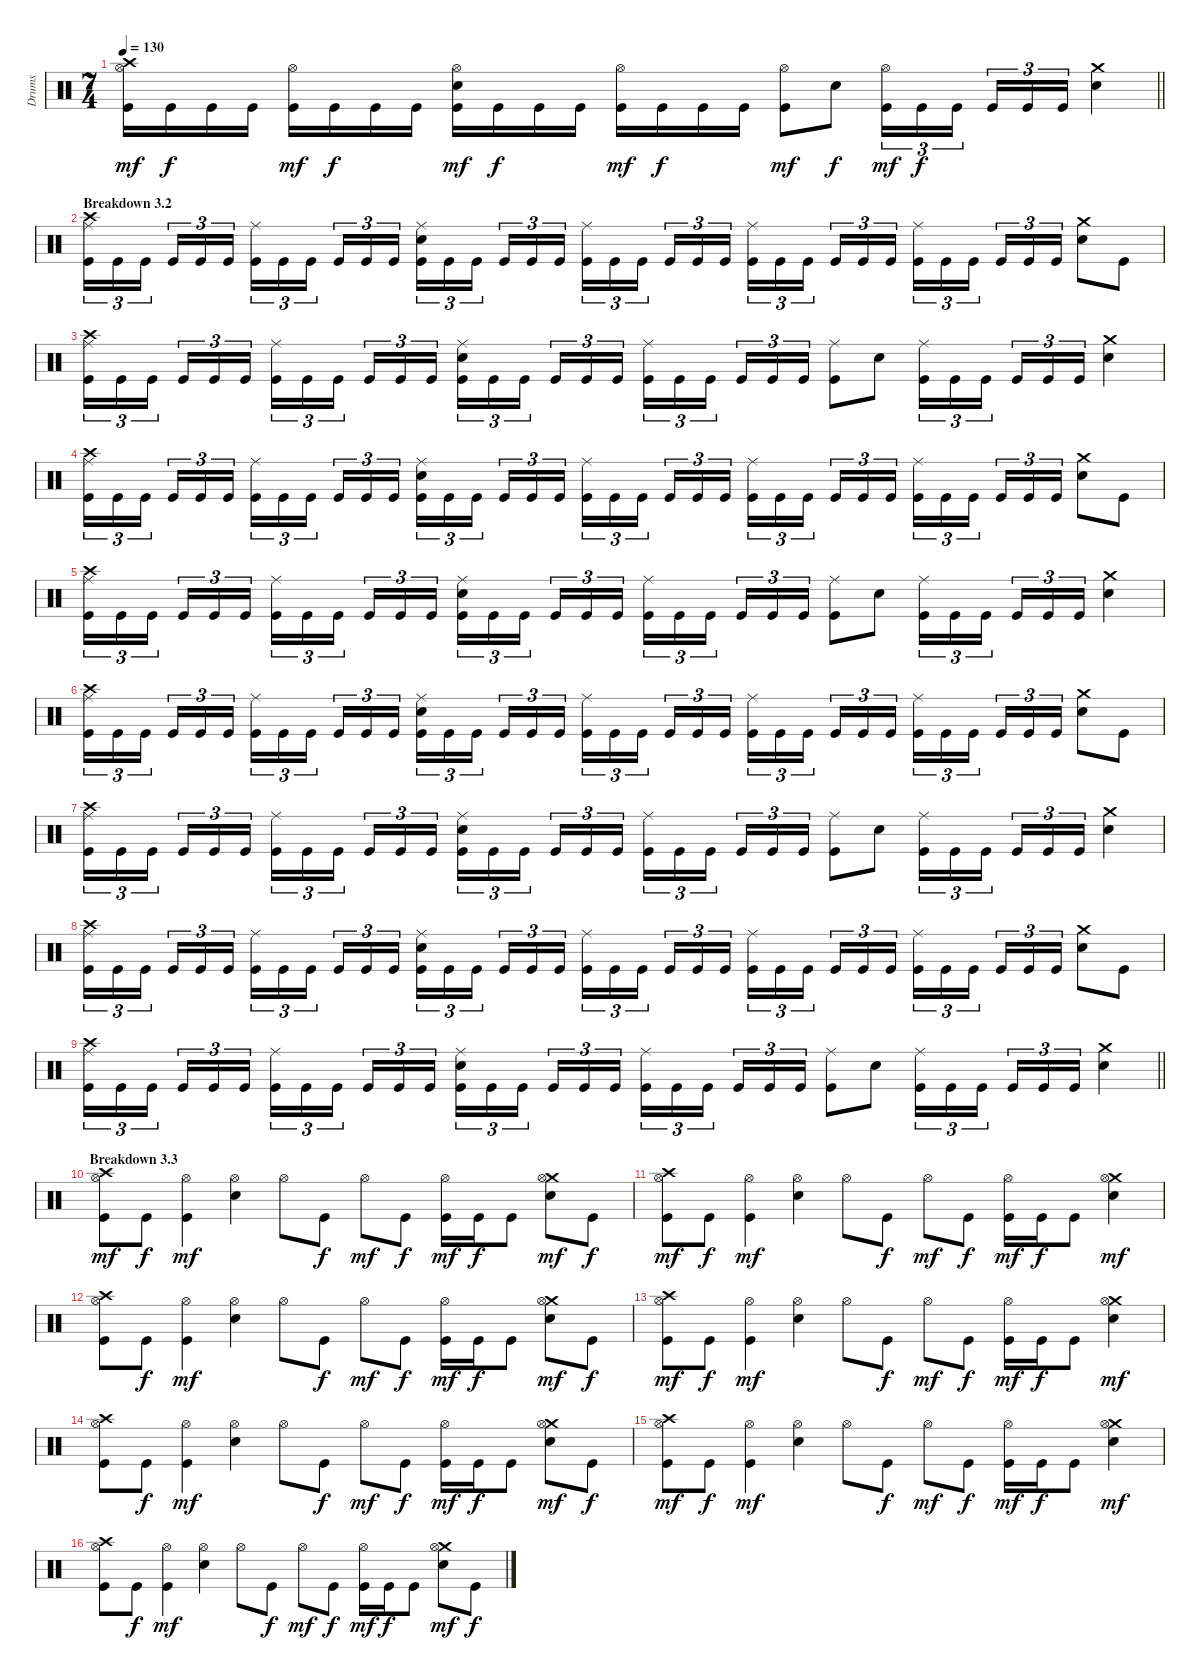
\track ("Drums" "Drums") {instrument percussion}
\staff {score}
\articulation defaults
\ts (7 4)
\tempo 130
\clef neutral
\barLineRight lightlight
\ks c
("Crash high (hit)" "Hi-Hat (open)" "Kick (hit)").16{dy mf} "Kick (hit)".16{dy f} "Kick (hit)".16 "Kick (hit)".16 ("Hi-Hat (open)" "Kick (hit)").16{dy mf} "Kick (hit)".16{dy f} "Kick (hit)".16 "Kick (hit)".16 ("Hi-Hat (open)" "Electric Snare (hit)" "Kick (hit)").16{dy mf} "Kick (hit)".16{dy f} "Kick (hit)".16 "Kick (hit)".16 ("Hi-Hat (open)" "Kick (hit)").16{dy mf} "Kick (hit)".16{dy f} "Kick (hit)".16 "Kick (hit)".16 ("Hi-Hat (open)" "Kick (hit)").8{dy mf} "Electric Snare (hit)".8{dy f} ("Hi-Hat (open)" "Kick (hit)").16{tu (3 2) dy mf} "Kick (hit)".16{tu (3 2) dy f} "Kick (hit)".16{tu (3 2) beam splitsecondary} "Kick (hit)".16{tu (3 2)} "Kick (hit)".16{tu (3 2)} "Kick (hit)".16{tu (3 2)} ("Crash medium (hit)" "Electric Snare (hit)").4 |
\section ("" "Breakdown 3.2")
("Crash high (hit)" "Ride (middle)" "Kick (hit)").16{tu (3 2)} "Kick (hit)".16{tu (3 2)} "Kick (hit)".16{tu (3 2) beam splitsecondary} "Kick (hit)".16{tu (3 2)} "Kick (hit)".16{tu (3 2)} "Kick (hit)".16{tu (3 2)} ("Ride (middle)" "Kick (hit)").16{tu (3 2)} "Kick (hit)".16{tu (3 2)} "Kick (hit)".16{tu (3 2) beam splitsecondary} "Kick (hit)".16{tu (3 2)} "Kick (hit)".16{tu (3 2)} "Kick (hit)".16{tu (3 2)} ("Ride (middle)" "Electric Snare (hit)" "Kick (hit)").16{tu (3 2)} "Kick (hit)".16{tu (3 2)} "Kick (hit)".16{tu (3 2) beam splitsecondary} "Kick (hit)".16{tu (3 2)} "Kick (hit)".16{tu (3 2)} "Kick (hit)".16{tu (3 2)} ("Ride (middle)" "Kick (hit)").16{tu (3 2)} "Kick (hit)".16{tu (3 2)} "Kick (hit)".16{tu (3 2) beam splitsecondary} "Kick (hit)".16{tu (3 2)} "Kick (hit)".16{tu (3 2)} "Kick (hit)".16{tu (3 2)} ("Ride (middle)" "Kick (hit)").16{tu (3 2)} "Kick (hit)".16{tu (3 2)} "Kick (hit)".16{tu (3 2) beam splitsecondary} "Kick (hit)".16{tu (3 2)} "Kick (hit)".16{tu (3 2)} "Kick (hit)".16{tu (3 2)} ("Ride (middle)" "Kick (hit)").16{tu (3 2)} "Kick (hit)".16{tu (3 2)} "Kick (hit)".16{tu (3 2) beam splitsecondary} "Kick (hit)".16{tu (3 2)} "Kick (hit)".16{tu (3 2)} "Kick (hit)".16{tu (3 2)} ("Crash medium (hit)" "Electric Snare (hit)").8 "Kick (hit)".8 |
("Crash high (hit)" "Ride (middle)" "Kick (hit)").16{tu (3 2)} "Kick (hit)".16{tu (3 2)} "Kick (hit)".16{tu (3 2) beam splitsecondary} "Kick (hit)".16{tu (3 2)} "Kick (hit)".16{tu (3 2)} "Kick (hit)".16{tu (3 2)} ("Ride (middle)" "Kick (hit)").16{tu (3 2)} "Kick (hit)".16{tu (3 2)} "Kick (hit)".16{tu (3 2) beam splitsecondary} "Kick (hit)".16{tu (3 2)} "Kick (hit)".16{tu (3 2)} "Kick (hit)".16{tu (3 2)} ("Ride (middle)" "Electric Snare (hit)" "Kick (hit)").16{tu (3 2)} "Kick (hit)".16{tu (3 2)} "Kick (hit)".16{tu (3 2) beam splitsecondary} "Kick (hit)".16{tu (3 2)} "Kick (hit)".16{tu (3 2)} "Kick (hit)".16{tu (3 2)} ("Ride (middle)" "Kick (hit)").16{tu (3 2)} "Kick (hit)".16{tu (3 2)} "Kick (hit)".16{tu (3 2) beam splitsecondary} "Kick (hit)".16{tu (3 2)} "Kick (hit)".16{tu (3 2)} "Kick (hit)".16{tu (3 2)} ("Ride (middle)" "Kick (hit)").8 "Electric Snare (hit)".8 ("Ride (middle)" "Kick (hit)").16{tu (3 2)} "Kick (hit)".16{tu (3 2)} "Kick (hit)".16{tu (3 2) beam splitsecondary} "Kick (hit)".16{tu (3 2)} "Kick (hit)".16{tu (3 2)} "Kick (hit)".16{tu (3 2)} ("Crash medium (hit)" "Electric Snare (hit)").4 |
("Crash high (hit)" "Ride (middle)" "Kick (hit)").16{tu (3 2)} "Kick (hit)".16{tu (3 2)} "Kick (hit)".16{tu (3 2) beam splitsecondary} "Kick (hit)".16{tu (3 2)} "Kick (hit)".16{tu (3 2)} "Kick (hit)".16{tu (3 2)} ("Ride (middle)" "Kick (hit)").16{tu (3 2)} "Kick (hit)".16{tu (3 2)} "Kick (hit)".16{tu (3 2) beam splitsecondary} "Kick (hit)".16{tu (3 2)} "Kick (hit)".16{tu (3 2)} "Kick (hit)".16{tu (3 2)} ("Ride (middle)" "Electric Snare (hit)" "Kick (hit)").16{tu (3 2)} "Kick (hit)".16{tu (3 2)} "Kick (hit)".16{tu (3 2) beam splitsecondary} "Kick (hit)".16{tu (3 2)} "Kick (hit)".16{tu (3 2)} "Kick (hit)".16{tu (3 2)} ("Ride (middle)" "Kick (hit)").16{tu (3 2)} "Kick (hit)".16{tu (3 2)} "Kick (hit)".16{tu (3 2) beam splitsecondary} "Kick (hit)".16{tu (3 2)} "Kick (hit)".16{tu (3 2)} "Kick (hit)".16{tu (3 2)} ("Ride (middle)" "Kick (hit)").16{tu (3 2)} "Kick (hit)".16{tu (3 2)} "Kick (hit)".16{tu (3 2) beam splitsecondary} "Kick (hit)".16{tu (3 2)} "Kick (hit)".16{tu (3 2)} "Kick (hit)".16{tu (3 2)} ("Ride (middle)" "Kick (hit)").16{tu (3 2)} "Kick (hit)".16{tu (3 2)} "Kick (hit)".16{tu (3 2) beam splitsecondary} "Kick (hit)".16{tu (3 2)} "Kick (hit)".16{tu (3 2)} "Kick (hit)".16{tu (3 2)} ("Crash medium (hit)" "Electric Snare (hit)").8 "Kick (hit)".8 |
("Crash high (hit)" "Ride (middle)" "Kick (hit)").16{tu (3 2)} "Kick (hit)".16{tu (3 2)} "Kick (hit)".16{tu (3 2) beam splitsecondary} "Kick (hit)".16{tu (3 2)} "Kick (hit)".16{tu (3 2)} "Kick (hit)".16{tu (3 2)} ("Ride (middle)" "Kick (hit)").16{tu (3 2)} "Kick (hit)".16{tu (3 2)} "Kick (hit)".16{tu (3 2) beam splitsecondary} "Kick (hit)".16{tu (3 2)} "Kick (hit)".16{tu (3 2)} "Kick (hit)".16{tu (3 2)} ("Ride (middle)" "Electric Snare (hit)" "Kick (hit)").16{tu (3 2)} "Kick (hit)".16{tu (3 2)} "Kick (hit)".16{tu (3 2) beam splitsecondary} "Kick (hit)".16{tu (3 2)} "Kick (hit)".16{tu (3 2)} "Kick (hit)".16{tu (3 2)} ("Ride (middle)" "Kick (hit)").16{tu (3 2)} "Kick (hit)".16{tu (3 2)} "Kick (hit)".16{tu (3 2) beam splitsecondary} "Kick (hit)".16{tu (3 2)} "Kick (hit)".16{tu (3 2)} "Kick (hit)".16{tu (3 2)} ("Ride (middle)" "Kick (hit)").8 "Electric Snare (hit)".8 ("Ride (middle)" "Kick (hit)").16{tu (3 2)} "Kick (hit)".16{tu (3 2)} "Kick (hit)".16{tu (3 2) beam splitsecondary} "Kick (hit)".16{tu (3 2)} "Kick (hit)".16{tu (3 2)} "Kick (hit)".16{tu (3 2)} ("Crash medium (hit)" "Electric Snare (hit)").4 |
("Crash high (hit)" "Ride (middle)" "Kick (hit)").16{tu (3 2)} "Kick (hit)".16{tu (3 2)} "Kick (hit)".16{tu (3 2) beam splitsecondary} "Kick (hit)".16{tu (3 2)} "Kick (hit)".16{tu (3 2)} "Kick (hit)".16{tu (3 2)} ("Ride (middle)" "Kick (hit)").16{tu (3 2)} "Kick (hit)".16{tu (3 2)} "Kick (hit)".16{tu (3 2) beam splitsecondary} "Kick (hit)".16{tu (3 2)} "Kick (hit)".16{tu (3 2)} "Kick (hit)".16{tu (3 2)} ("Ride (middle)" "Electric Snare (hit)" "Kick (hit)").16{tu (3 2)} "Kick (hit)".16{tu (3 2)} "Kick (hit)".16{tu (3 2) beam splitsecondary} "Kick (hit)".16{tu (3 2)} "Kick (hit)".16{tu (3 2)} "Kick (hit)".16{tu (3 2)} ("Ride (middle)" "Kick (hit)").16{tu (3 2)} "Kick (hit)".16{tu (3 2)} "Kick (hit)".16{tu (3 2) beam splitsecondary} "Kick (hit)".16{tu (3 2)} "Kick (hit)".16{tu (3 2)} "Kick (hit)".16{tu (3 2)} ("Ride (middle)" "Kick (hit)").16{tu (3 2)} "Kick (hit)".16{tu (3 2)} "Kick (hit)".16{tu (3 2) beam splitsecondary} "Kick (hit)".16{tu (3 2)} "Kick (hit)".16{tu (3 2)} "Kick (hit)".16{tu (3 2)} ("Ride (middle)" "Kick (hit)").16{tu (3 2)} "Kick (hit)".16{tu (3 2)} "Kick (hit)".16{tu (3 2) beam splitsecondary} "Kick (hit)".16{tu (3 2)} "Kick (hit)".16{tu (3 2)} "Kick (hit)".16{tu (3 2)} ("Crash medium (hit)" "Electric Snare (hit)").8 "Kick (hit)".8 |
("Crash high (hit)" "Ride (middle)" "Kick (hit)").16{tu (3 2)} "Kick (hit)".16{tu (3 2)} "Kick (hit)".16{tu (3 2) beam splitsecondary} "Kick (hit)".16{tu (3 2)} "Kick (hit)".16{tu (3 2)} "Kick (hit)".16{tu (3 2)} ("Ride (middle)" "Kick (hit)").16{tu (3 2)} "Kick (hit)".16{tu (3 2)} "Kick (hit)".16{tu (3 2) beam splitsecondary} "Kick (hit)".16{tu (3 2)} "Kick (hit)".16{tu (3 2)} "Kick (hit)".16{tu (3 2)} ("Ride (middle)" "Electric Snare (hit)" "Kick (hit)").16{tu (3 2)} "Kick (hit)".16{tu (3 2)} "Kick (hit)".16{tu (3 2) beam splitsecondary} "Kick (hit)".16{tu (3 2)} "Kick (hit)".16{tu (3 2)} "Kick (hit)".16{tu (3 2)} ("Ride (middle)" "Kick (hit)").16{tu (3 2)} "Kick (hit)".16{tu (3 2)} "Kick (hit)".16{tu (3 2) beam splitsecondary} "Kick (hit)".16{tu (3 2)} "Kick (hit)".16{tu (3 2)} "Kick (hit)".16{tu (3 2)} ("Ride (middle)" "Kick (hit)").8 "Electric Snare (hit)".8 ("Ride (middle)" "Kick (hit)").16{tu (3 2)} "Kick (hit)".16{tu (3 2)} "Kick (hit)".16{tu (3 2) beam splitsecondary} "Kick (hit)".16{tu (3 2)} "Kick (hit)".16{tu (3 2)} "Kick (hit)".16{tu (3 2)} ("Crash medium (hit)" "Electric Snare (hit)").4 |
("Crash high (hit)" "Ride (middle)" "Kick (hit)").16{tu (3 2)} "Kick (hit)".16{tu (3 2)} "Kick (hit)".16{tu (3 2) beam splitsecondary} "Kick (hit)".16{tu (3 2)} "Kick (hit)".16{tu (3 2)} "Kick (hit)".16{tu (3 2)} ("Ride (middle)" "Kick (hit)").16{tu (3 2)} "Kick (hit)".16{tu (3 2)} "Kick (hit)".16{tu (3 2) beam splitsecondary} "Kick (hit)".16{tu (3 2)} "Kick (hit)".16{tu (3 2)} "Kick (hit)".16{tu (3 2)} ("Ride (middle)" "Electric Snare (hit)" "Kick (hit)").16{tu (3 2)} "Kick (hit)".16{tu (3 2)} "Kick (hit)".16{tu (3 2) beam splitsecondary} "Kick (hit)".16{tu (3 2)} "Kick (hit)".16{tu (3 2)} "Kick (hit)".16{tu (3 2)} ("Ride (middle)" "Kick (hit)").16{tu (3 2)} "Kick (hit)".16{tu (3 2)} "Kick (hit)".16{tu (3 2) beam splitsecondary} "Kick (hit)".16{tu (3 2)} "Kick (hit)".16{tu (3 2)} "Kick (hit)".16{tu (3 2)} ("Ride (middle)" "Kick (hit)").16{tu (3 2)} "Kick (hit)".16{tu (3 2)} "Kick (hit)".16{tu (3 2) beam splitsecondary} "Kick (hit)".16{tu (3 2)} "Kick (hit)".16{tu (3 2)} "Kick (hit)".16{tu (3 2)} ("Ride (middle)" "Kick (hit)").16{tu (3 2)} "Kick (hit)".16{tu (3 2)} "Kick (hit)".16{tu (3 2) beam splitsecondary} "Kick (hit)".16{tu (3 2)} "Kick (hit)".16{tu (3 2)} "Kick (hit)".16{tu (3 2)} ("Crash medium (hit)" "Electric Snare (hit)").8 "Kick (hit)".8 |
\barLineRight lightlight
("Crash high (hit)" "Ride (middle)" "Kick (hit)").16{tu (3 2)} "Kick (hit)".16{tu (3 2)} "Kick (hit)".16{tu (3 2) beam splitsecondary} "Kick (hit)".16{tu (3 2)} "Kick (hit)".16{tu (3 2)} "Kick (hit)".16{tu (3 2)} ("Ride (middle)" "Kick (hit)").16{tu (3 2)} "Kick (hit)".16{tu (3 2)} "Kick (hit)".16{tu (3 2) beam splitsecondary} "Kick (hit)".16{tu (3 2)} "Kick (hit)".16{tu (3 2)} "Kick (hit)".16{tu (3 2)} ("Ride (middle)" "Electric Snare (hit)" "Kick (hit)").16{tu (3 2)} "Kick (hit)".16{tu (3 2)} "Kick (hit)".16{tu (3 2) beam splitsecondary} "Kick (hit)".16{tu (3 2)} "Kick (hit)".16{tu (3 2)} "Kick (hit)".16{tu (3 2)} ("Ride (middle)" "Kick (hit)").16{tu (3 2)} "Kick (hit)".16{tu (3 2)} "Kick (hit)".16{tu (3 2) beam splitsecondary} "Kick (hit)".16{tu (3 2)} "Kick (hit)".16{tu (3 2)} "Kick (hit)".16{tu (3 2)} ("Ride (middle)" "Kick (hit)").8 "Electric Snare (hit)".8 ("Ride (middle)" "Kick (hit)").16{tu (3 2)} "Kick (hit)".16{tu (3 2)} "Kick (hit)".16{tu (3 2) beam splitsecondary} "Kick (hit)".16{tu (3 2)} "Kick (hit)".16{tu (3 2)} "Kick (hit)".16{tu (3 2)} ("Crash medium (hit)" "Electric Snare (hit)").4 |
\section ("" "Breakdown 3.3")
("Crash high (hit)" "Hi-Hat (open)" "Kick (hit)").8{dy mf} "Kick (hit)".8{dy f} ("Hi-Hat (open)" "Kick (hit)").4{dy mf} ("Hi-Hat (open)" "Electric Snare (hit)").4 "Hi-Hat (open)".8 "Kick (hit)".8{dy f} "Hi-Hat (open)".8{dy mf} "Kick (hit)".8{dy f} ("Hi-Hat (open)" "Kick (hit)").16{dy mf} "Kick (hit)".16{dy f} "Kick (hit)".8 ("Crash medium (hit)" "Hi-Hat (open)" "Electric Snare (hit)").8{dy mf} "Kick (hit)".8{dy f} |
("Crash high (hit)" "Hi-Hat (open)" "Kick (hit)").8{dy mf} "Kick (hit)".8{dy f} ("Hi-Hat (open)" "Kick (hit)").4{dy mf} ("Hi-Hat (open)" "Electric Snare (hit)").4 "Hi-Hat (open)".8 "Kick (hit)".8{dy f} "Hi-Hat (open)".8{dy mf} "Kick (hit)".8{dy f} ("Hi-Hat (open)" "Kick (hit)").16{dy mf} "Kick (hit)".16{dy f} "Kick (hit)".8 ("Crash medium (hit)" "Hi-Hat (open)" "Electric Snare (hit)").4{dy mf} |
("Crash high (hit)" "Hi-Hat (open)" "Kick (hit)").8 "Kick (hit)".8{dy f} ("Hi-Hat (open)" "Kick (hit)").4{dy mf} ("Hi-Hat (open)" "Electric Snare (hit)").4 "Hi-Hat (open)".8 "Kick (hit)".8{dy f} "Hi-Hat (open)".8{dy mf} "Kick (hit)".8{dy f} ("Hi-Hat (open)" "Kick (hit)").16{dy mf} "Kick (hit)".16{dy f} "Kick (hit)".8 ("Crash medium (hit)" "Hi-Hat (open)" "Electric Snare (hit)").8{dy mf} "Kick (hit)".8{dy f} |
("Crash high (hit)" "Hi-Hat (open)" "Kick (hit)").8{dy mf} "Kick (hit)".8{dy f} ("Hi-Hat (open)" "Kick (hit)").4{dy mf} ("Hi-Hat (open)" "Electric Snare (hit)").4 "Hi-Hat (open)".8 "Kick (hit)".8{dy f} "Hi-Hat (open)".8{dy mf} "Kick (hit)".8{dy f} ("Hi-Hat (open)" "Kick (hit)").16{dy mf} "Kick (hit)".16{dy f} "Kick (hit)".8 ("Crash medium (hit)" "Hi-Hat (open)" "Electric Snare (hit)").4{dy mf} |
("Crash high (hit)" "Hi-Hat (open)" "Kick (hit)").8 "Kick (hit)".8{dy f} ("Hi-Hat (open)" "Kick (hit)").4{dy mf} ("Hi-Hat (open)" "Electric Snare (hit)").4 "Hi-Hat (open)".8 "Kick (hit)".8{dy f} "Hi-Hat (open)".8{dy mf} "Kick (hit)".8{dy f} ("Hi-Hat (open)" "Kick (hit)").16{dy mf} "Kick (hit)".16{dy f} "Kick (hit)".8 ("Crash medium (hit)" "Hi-Hat (open)" "Electric Snare (hit)").8{dy mf} "Kick (hit)".8{dy f} |
("Crash high (hit)" "Hi-Hat (open)" "Kick (hit)").8{dy mf} "Kick (hit)".8{dy f} ("Hi-Hat (open)" "Kick (hit)").4{dy mf} ("Hi-Hat (open)" "Electric Snare (hit)").4 "Hi-Hat (open)".8 "Kick (hit)".8{dy f} "Hi-Hat (open)".8{dy mf} "Kick (hit)".8{dy f} ("Hi-Hat (open)" "Kick (hit)").16{dy mf} "Kick (hit)".16{dy f} "Kick (hit)".8 ("Crash medium (hit)" "Hi-Hat (open)" "Electric Snare (hit)").4{dy mf} |
("Crash high (hit)" "Hi-Hat (open)" "Kick (hit)").8 "Kick (hit)".8{dy f} ("Hi-Hat (open)" "Kick (hit)").4{dy mf} ("Hi-Hat (open)" "Electric Snare (hit)").4 "Hi-Hat (open)".8 "Kick (hit)".8{dy f} "Hi-Hat (open)".8{dy mf} "Kick (hit)".8{dy f} ("Hi-Hat (open)" "Kick (hit)").16{dy mf} "Kick (hit)".16{dy f} "Kick (hit)".8 ("Crash medium (hit)" "Hi-Hat (open)" "Electric Snare (hit)").8{dy mf} "Kick (hit)".8{dy f}
